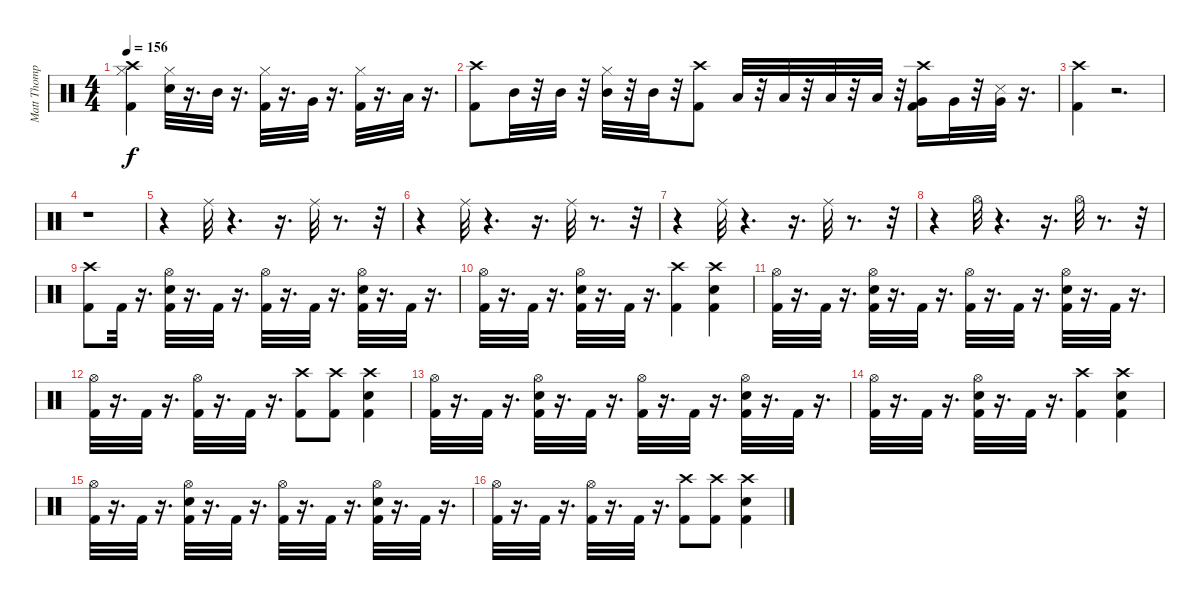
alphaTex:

\track ("Matt Thompson" "Matt Thomp") {instrument percussion}
\staff {score}
\articulation defaults
\ts (4 4)
\tempo 156
\clef neutral
\ks c
("Hi-Hat (closed)" "Crash high (hit)" "Kick (hit) 2").4{dy f} ("Hi-Hat (closed)" "Snare (hit) 2").32 r.16{d} "Mid Tom (hit)".32 r.16{d} ("Hi-Hat (closed)" "Kick (hit) 2").32 r.16{d} "Very Low Tom (hit)".32 r.16{d} ("Hi-Hat (closed)" "Kick (hit) 2").32 r.16{d} "Low Floor Tom (hit)".32 r.16{d} |
("Kick (hit) 2" "Crash high (hit)").8 "Mid Tom (hit)".32 r.32 "Mid Tom (hit)".32 r.32 ("Hi-Hat (closed)" "Mid Tom (hit)").32 r.32 "Mid Tom (hit)".32 r.32 ("Kick (hit) 2" "Crash high (hit)").8 "Low Tom (hit)".32 r.32 "Low Tom (hit)".32 r.32 "Low Tom (hit)".32 r.32 "Low Tom (hit)".32 r.32 ("Very Low Tom (hit)" "Kick (hit) 2" "Crash high (hit)").16 "Very Low Tom (hit)".32 r.32 ("Snare (side stick) 3" "Very Low Tom (hit)").32 r.16{d} |
("Crash high (hit)" "Kick (hit) 2").4 r.2{d} |
r.1 |
r.4 "Ride (middle)".32 r.4{d} r.16{d} "Ride (middle)".32 r.8{d} r.32 |
r.4 "Ride (middle)".32 r.4{d} r.16{d} "Ride (middle)".32 r.8{d} r.32 |
r.4 "Ride (middle)".32 r.4{d} r.16{d} "Ride (middle)".32 r.8{d} r.32 |
r.4 "Hi-Hat (open)".32 r.4{d} r.16{d} "Hi-Hat (open)".32 r.8{d} r.32 |
("Crash high (hit)" "Kick (hit) 2").8 "Kick (hit) 2".32 r.16{d} ("Hi-Hat (open)" "Snare (hit) 2" "Kick (hit) 2").32 r.16{d} "Kick (hit) 2".32 r.16{d} ("Hi-Hat (open)" "Kick (hit) 2").32 r.16{d} "Kick (hit) 2".32 r.16{d} ("Hi-Hat (open)" "Snare (hit) 2" "Kick (hit) 2").32 r.16{d} "Kick (hit) 2".32 r.16{d} |
("Hi-Hat (open)" "Kick (hit) 2").32 r.16{d} "Kick (hit) 2".32 r.16{d} ("Hi-Hat (open)" "Snare (hit) 2" "Kick (hit) 2").32 r.16{d} "Kick (hit) 2".32 r.16{d} ("Crash high (hit)" "Kick (hit) 2").4 ("Snare (hit) 2" "Crash high (hit)" "Kick (hit) 2").4 |
("Hi-Hat (open)" "Kick (hit) 2").32 r.16{d} "Kick (hit) 2".32 r.16{d} ("Hi-Hat (open)" "Snare (hit) 2" "Kick (hit) 2").32 r.16{d} "Kick (hit) 2".32 r.16{d} ("Hi-Hat (open)" "Kick (hit) 2").32 r.16{d} "Kick (hit) 2".32 r.16{d} ("Hi-Hat (open)" "Snare (hit) 2" "Kick (hit) 2").32 r.16{d} "Kick (hit) 2".32 r.16{d} |
("Hi-Hat (open)" "Kick (hit) 2").32 r.16{d} "Kick (hit) 2".32 r.16{d} ("Hi-Hat (open)" "Kick (hit) 2").32 r.16{d} "Kick (hit) 2".32 r.16{d} ("Crash high (hit)" "Kick (hit) 2").8 ("Crash high (hit)" "Kick (hit) 2").8 ("Crash high (hit)" "Snare (hit) 2" "Kick (hit) 2").4 |
("Hi-Hat (open)" "Kick (hit) 2").32 r.16{d} "Kick (hit) 2".32 r.16{d} ("Hi-Hat (open)" "Snare (hit) 2" "Kick (hit) 2").32 r.16{d} "Kick (hit) 2".32 r.16{d} ("Hi-Hat (open)" "Kick (hit) 2").32 r.16{d} "Kick (hit) 2".32 r.16{d} ("Hi-Hat (open)" "Snare (hit) 2" "Kick (hit) 2").32 r.16{d} "Kick (hit) 2".32 r.16{d} |
("Hi-Hat (open)" "Kick (hit) 2").32 r.16{d} "Kick (hit) 2".32 r.16{d} ("Hi-Hat (open)" "Snare (hit) 2" "Kick (hit) 2").32 r.16{d} "Kick (hit) 2".32 r.16{d} ("Crash high (hit)" "Kick (hit) 2").4 ("Snare (hit) 2" "Crash high (hit)" "Kick (hit) 2").4 |
("Hi-Hat (open)" "Kick (hit) 2").32 r.16{d} "Kick (hit) 2".32 r.16{d} ("Hi-Hat (open)" "Snare (hit) 2" "Kick (hit) 2").32 r.16{d} "Kick (hit) 2".32 r.16{d} ("Hi-Hat (open)" "Kick (hit) 2").32 r.16{d} "Kick (hit) 2".32 r.16{d} ("Hi-Hat (open)" "Snare (hit) 2" "Kick (hit) 2").32 r.16{d} "Kick (hit) 2".32 r.16{d} |
("Hi-Hat (open)" "Kick (hit) 2").32 r.16{d} "Kick (hit) 2".32 r.16{d} ("Hi-Hat (open)" "Kick (hit) 2").32 r.16{d} "Kick (hit) 2".32 r.16{d} ("Crash high (hit)" "Kick (hit) 2").8 ("Crash high (hit)" "Kick (hit) 2").8 ("Crash high (hit)" "Snare (hit) 2" "Kick (hit) 2").4
